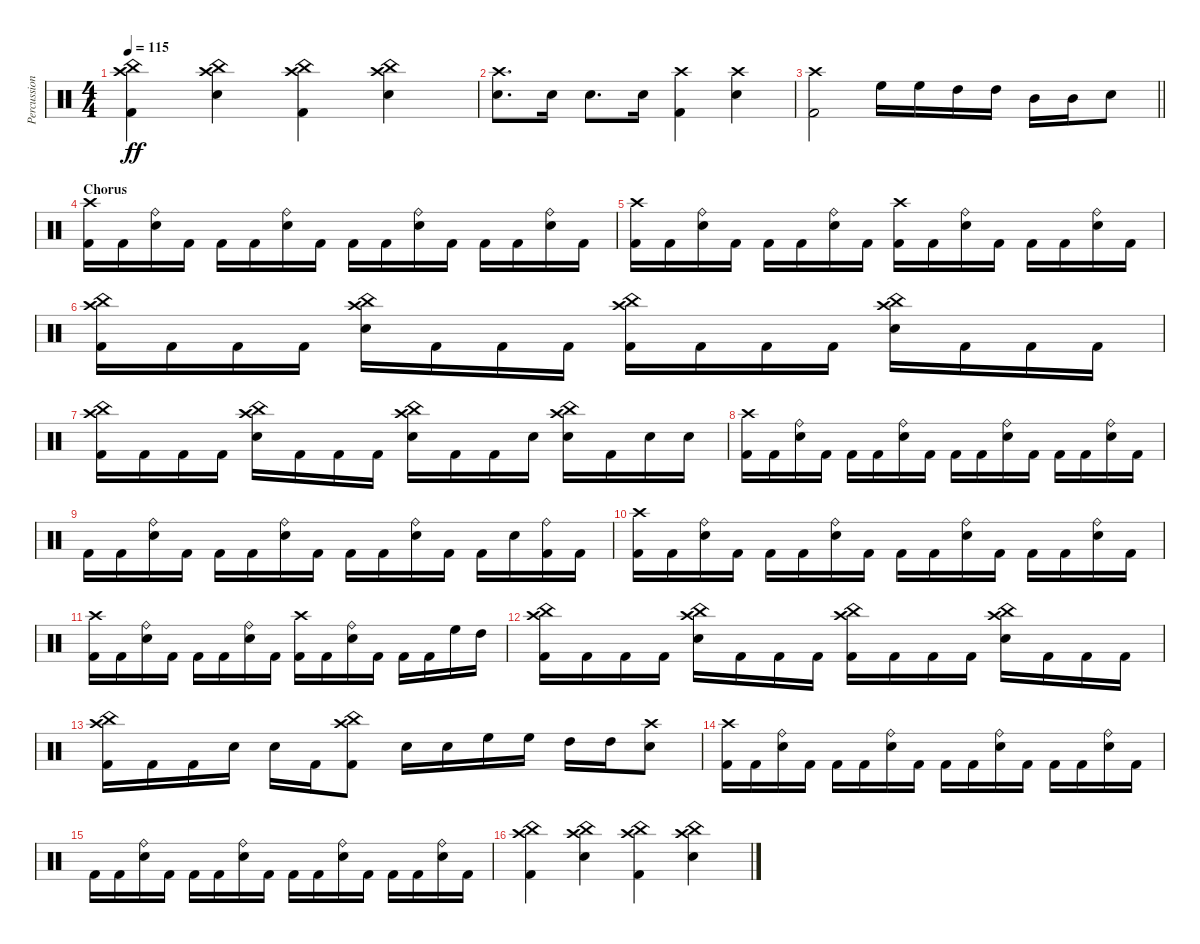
\track ("Percussion" "Percussion") {instrument percussion}
\staff {score}
\articulation defaults
\ts (4 4)
\tempo 115
\clef neutral
\ks c
("Kick (hit) 2" "Crash high (hit)" "China (hit)").4{dy ff} ("Electric Snare (hit)" "Crash high (hit)" "China (hit)").4 ("Kick (hit) 2" "Crash high (hit)" "China (hit)").4 ("Electric Snare (hit)" "Crash high (hit)" "China (hit)").4 |
("Electric Snare (hit)" "Crash high (hit)").8{d} "Electric Snare (hit)".16 "Electric Snare (hit)".8{d} "Electric Snare (hit)".16 ("Kick (hit) 2" "Crash high (hit)").4 ("Electric Snare (hit)" "Crash high (hit)").4 |
\barLineRight lightlight
("Kick (hit) 2" "Crash high (hit)").2 "High Floor Tom (hit)".16 "High Floor Tom (hit)".16 "High Tom (hit)".16 "High Tom (hit)".16 "Mid Tom (hit)".16 "Mid Tom (hit)".16 "Electric Snare (hit)".8 |
\section ("" "Chorus")
("Kick (hit) 2" "Crash high (hit)").16 "Kick (hit) 2".16 ("Electric Snare (hit)" "Ride (bell)").16 "Kick (hit) 2".16 "Kick (hit) 2".16 "Kick (hit) 2".16 ("Electric Snare (hit)" "Ride (bell)").16 "Kick (hit) 2".16 "Kick (hit) 2".16 "Kick (hit) 2".16 ("Electric Snare (hit)" "Ride (bell)").16 "Kick (hit) 2".16 "Kick (hit) 2".16 "Kick (hit) 2".16 ("Electric Snare (hit)" "Ride (bell)").16 "Kick (hit) 2".16 |
("Kick (hit) 2" "Crash high (hit)").16 "Kick (hit) 2".16 ("Electric Snare (hit)" "Ride (bell)").16 "Kick (hit) 2".16 "Kick (hit) 2".16 "Kick (hit) 2".16 ("Electric Snare (hit)" "Ride (bell)").16 "Kick (hit) 2".16 ("Kick (hit) 2" "Crash high (hit)").16 "Kick (hit) 2".16 ("Electric Snare (hit)" "Ride (bell)").16 "Kick (hit) 2".16 "Kick (hit) 2".16 "Kick (hit) 2".16 ("Electric Snare (hit)" "Ride (bell)").16 "Kick (hit) 2".16 |
("Kick (hit) 2" "Crash high (hit)" "China (hit)").16 "Kick (hit) 2".16 "Kick (hit) 2".16 "Kick (hit) 2".16 ("Electric Snare (hit)" "Crash high (hit)" "China (hit)").16 "Kick (hit) 2".16 "Kick (hit) 2".16 "Kick (hit) 2".16 ("Kick (hit) 2" "Crash high (hit)" "China (hit)").16 "Kick (hit) 2".16 "Kick (hit) 2".16 "Kick (hit) 2".16 ("Electric Snare (hit)" "Crash high (hit)" "China (hit)").16 "Kick (hit) 2".16 "Kick (hit) 2".16 "Kick (hit) 2".16 |
("Kick (hit) 2" "Crash high (hit)" "China (hit)").16 "Kick (hit) 2".16 "Kick (hit) 2".16 "Kick (hit) 2".16 ("Electric Snare (hit)" "Crash high (hit)" "China (hit)").16 "Kick (hit) 2".16 "Kick (hit) 2".16 "Kick (hit) 2".16 ("Electric Snare (hit)" "Crash high (hit)" "China (hit)").16 "Kick (hit) 2".16 "Kick (hit) 2".16 "Electric Snare (hit)".16 ("Electric Snare (hit)" "Crash high (hit)" "China (hit)").16 "Kick (hit) 2".16 "Electric Snare (hit)".16 "Electric Snare (hit)".16 |
("Kick (hit) 2" "Crash high (hit)").16 "Kick (hit) 2".16 ("Electric Snare (hit)" "Ride (bell)").16 "Kick (hit) 2".16 "Kick (hit) 2".16 "Kick (hit) 2".16 ("Electric Snare (hit)" "Ride (bell)").16 "Kick (hit) 2".16 "Kick (hit) 2".16 "Kick (hit) 2".16 ("Electric Snare (hit)" "Ride (bell)").16 "Kick (hit) 2".16 "Kick (hit) 2".16 "Kick (hit) 2".16 ("Electric Snare (hit)" "Ride (bell)").16 "Kick (hit) 2".16 |
"Kick (hit) 2".16 "Kick (hit) 2".16 ("Electric Snare (hit)" "Ride (bell)").16 "Kick (hit) 2".16 "Kick (hit) 2".16 "Kick (hit) 2".16 ("Electric Snare (hit)" "Ride (bell)").16 "Kick (hit) 2".16 "Kick (hit) 2".16 "Kick (hit) 2".16 ("Electric Snare (hit)" "Ride (bell)").16 "Kick (hit) 2".16 "Kick (hit) 2".16 "Electric Snare (hit)".16 ("Kick (hit) 2" "Ride (bell)").16 "Kick (hit) 2".16 |
("Kick (hit) 2" "Crash high (hit)").16 "Kick (hit) 2".16 ("Electric Snare (hit)" "Ride (bell)").16 "Kick (hit) 2".16 "Kick (hit) 2".16 "Kick (hit) 2".16 ("Electric Snare (hit)" "Ride (bell)").16 "Kick (hit) 2".16 "Kick (hit) 2".16 "Kick (hit) 2".16 ("Electric Snare (hit)" "Ride (bell)").16 "Kick (hit) 2".16 "Kick (hit) 2".16 "Kick (hit) 2".16 ("Electric Snare (hit)" "Ride (bell)").16 "Kick (hit) 2".16 |
("Kick (hit) 2" "Crash high (hit)").16 "Kick (hit) 2".16 ("Electric Snare (hit)" "Ride (bell)").16 "Kick (hit) 2".16 "Kick (hit) 2".16 "Kick (hit) 2".16 ("Electric Snare (hit)" "Ride (bell)").16 "Kick (hit) 2".16 ("Kick (hit) 2" "Crash high (hit)").16 "Kick (hit) 2".16 ("Electric Snare (hit)" "Ride (bell)").16 "Kick (hit) 2".16 "Kick (hit) 2".16 "Kick (hit) 2".16 "High Floor Tom (hit)".16 "High Tom (hit)".16 |
("Kick (hit) 2" "Crash high (hit)" "China (hit)").16 "Kick (hit) 2".16 "Kick (hit) 2".16 "Kick (hit) 2".16 ("Electric Snare (hit)" "Crash high (hit)" "China (hit)").16 "Kick (hit) 2".16 "Kick (hit) 2".16 "Kick (hit) 2".16 ("Kick (hit) 2" "Crash high (hit)" "China (hit)").16 "Kick (hit) 2".16 "Kick (hit) 2".16 "Kick (hit) 2".16 ("Electric Snare (hit)" "Crash high (hit)" "China (hit)").16 "Kick (hit) 2".16 "Kick (hit) 2".16 "Kick (hit) 2".16 |
("Kick (hit) 2" "Crash high (hit)" "China (hit)").16 "Kick (hit) 2".16 "Kick (hit) 2".16 "Electric Snare (hit)".16 "Electric Snare (hit)".16 "Kick (hit) 2".16 ("Kick (hit) 2" "Crash high (hit)" "China (hit)").8 "Electric Snare (hit)".16 "Electric Snare (hit)".16 "High Floor Tom (hit)".16 "High Floor Tom (hit)".16 "High Tom (hit)".16 "High Tom (hit)".16 ("Electric Snare (hit)" "Crash high (hit)").8 |
("Kick (hit) 2" "Crash high (hit)").16 "Kick (hit) 2".16 ("Electric Snare (hit)" "Ride (bell)").16 "Kick (hit) 2".16 "Kick (hit) 2".16 "Kick (hit) 2".16 ("Electric Snare (hit)" "Ride (bell)").16 "Kick (hit) 2".16 "Kick (hit) 2".16 "Kick (hit) 2".16 ("Electric Snare (hit)" "Ride (bell)").16 "Kick (hit) 2".16 "Kick (hit) 2".16 "Kick (hit) 2".16 ("Electric Snare (hit)" "Ride (bell)").16 "Kick (hit) 2".16 |
"Kick (hit) 2".16 "Kick (hit) 2".16 ("Electric Snare (hit)" "Ride (bell)").16 "Kick (hit) 2".16 "Kick (hit) 2".16 "Kick (hit) 2".16 ("Electric Snare (hit)" "Ride (bell)").16 "Kick (hit) 2".16 "Kick (hit) 2".16 "Kick (hit) 2".16 ("Electric Snare (hit)" "Ride (bell)").16 "Kick (hit) 2".16 "Kick (hit) 2".16 "Kick (hit) 2".16 ("Electric Snare (hit)" "Ride (bell)").16 "Kick (hit) 2".16 |
("Kick (hit) 2" "Crash high (hit)" "China (hit)").4 ("Electric Snare (hit)" "Crash high (hit)" "China (hit)").4 ("Kick (hit) 2" "Crash high (hit)" "China (hit)").4 ("Electric Snare (hit)" "Crash high (hit)" "China (hit)").4
